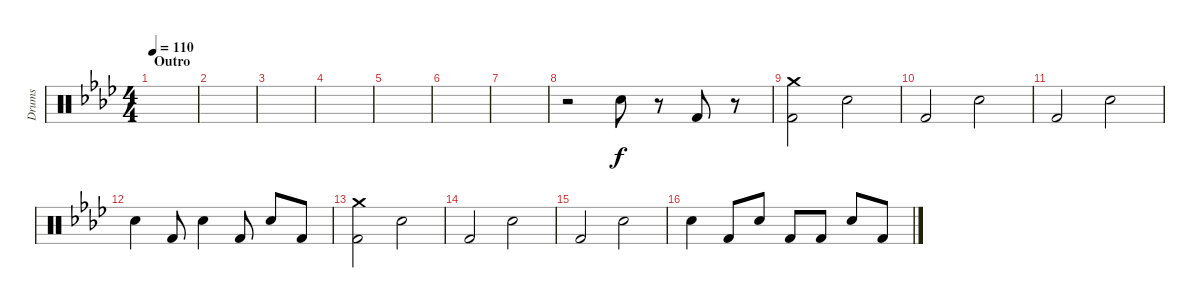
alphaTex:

\track ("Drums" "Drums") {instrument percussion}
\staff {score}
\articulation defaults
\ts (4 4)
\section ("" "Outro")
\tempo 110
\clef neutral
\ks fminor
|
|
|
|
|
|
|
r.2 "Snare (hit) 2".8 r.8 "Kick (hit) 2".8 r.8 |
("Crash medium (hit)" "Kick (hit) 2").2 "Snare (hit) 2".2 |
"Kick (hit) 2".2 "Snare (hit) 2".2 |
"Kick (hit) 2".2 "Snare (hit) 2".2 |
"Snare (hit) 2".4 "Kick (hit) 2".8 "Snare (hit) 2".4 "Kick (hit) 2".8 "Snare (hit) 2".8 "Kick (hit) 2".8 |
("Crash medium (hit)" "Kick (hit) 2").2 "Snare (hit) 2".2 |
"Kick (hit) 2".2 "Snare (hit) 2".2 |
"Kick (hit) 2".2 "Snare (hit) 2".2 |
"Snare (hit) 2".4 "Kick (hit) 2".8 "Snare (hit) 2".8 "Kick (hit) 2".8 "Kick (hit) 2".8 "Snare (hit) 2".8 "Kick (hit) 2".8
